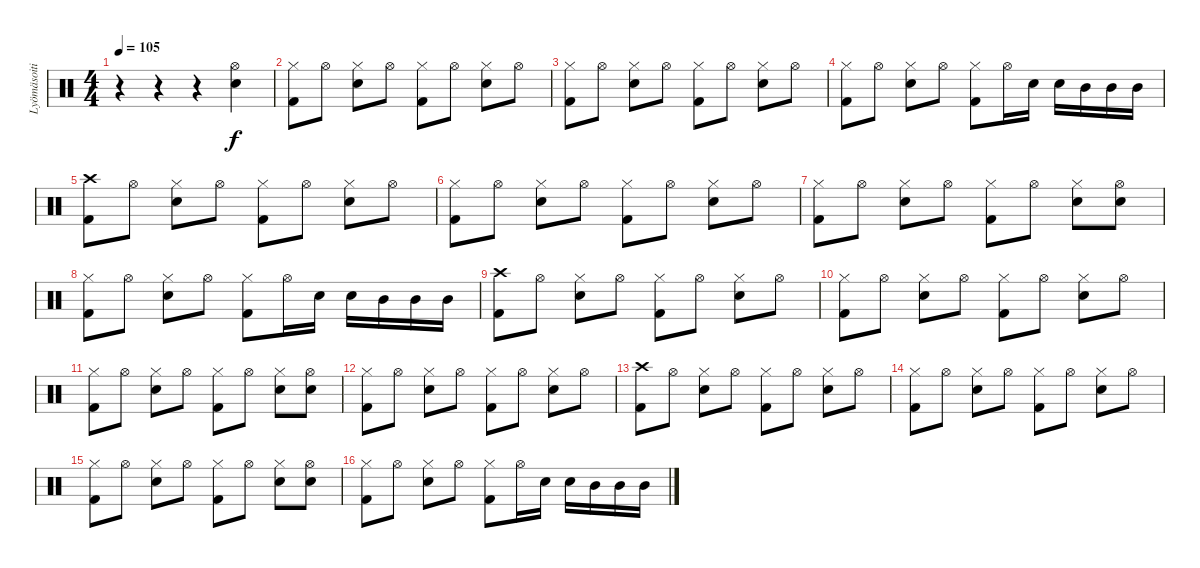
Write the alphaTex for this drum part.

\track ("Lyömäsoitin" "Lyömäsoiti") {instrument percussion}
\staff {score}
\articulation defaults
\ts (4 4)
\tempo 105
\clef neutral
\ks c
r.4{dy f} r.4 r.4 ("Hi-Hat (open)" "Snare (hit) 2").4 |
("Hi-Hat (closed)" "Kick (hit) 2").8 "Hi-Hat (open)".8 ("Hi-Hat (closed)" "Snare (hit) 2").8 "Hi-Hat (open)".8 ("Hi-Hat (closed)" "Kick (hit) 2").8 "Hi-Hat (open)".8 ("Hi-Hat (closed)" "Snare (hit) 2").8 "Hi-Hat (open)".8 |
("Hi-Hat (closed)" "Kick (hit) 2").8 "Hi-Hat (open)".8 ("Hi-Hat (closed)" "Snare (hit) 2").8 "Hi-Hat (open)".8 ("Hi-Hat (closed)" "Kick (hit) 2").8 "Hi-Hat (open)".8 ("Hi-Hat (closed)" "Snare (hit) 2").8 "Hi-Hat (open)".8 |
("Hi-Hat (closed)" "Kick (hit) 2").8 "Hi-Hat (open)".8 ("Hi-Hat (closed)" "Snare (hit) 2").8 "Hi-Hat (open)".8 ("Hi-Hat (closed)" "Kick (hit) 2").8 "Hi-Hat (open)".16 "Snare (hit) 2".16 "Snare (hit) 2".16 "Mid Tom (hit)".16 "Mid Tom (hit)".16 "Mid Tom (hit)".16 |
("Crash high (hit)" "Kick (hit) 2").8 "Hi-Hat (open)".8 ("Hi-Hat (closed)" "Snare (hit) 2").8 "Hi-Hat (open)".8 ("Hi-Hat (closed)" "Kick (hit) 2").8 "Hi-Hat (open)".8 ("Hi-Hat (closed)" "Snare (hit) 2").8 "Hi-Hat (open)".8 |
("Hi-Hat (closed)" "Kick (hit) 2").8 "Hi-Hat (open)".8 ("Hi-Hat (closed)" "Snare (hit) 2").8 "Hi-Hat (open)".8 ("Hi-Hat (closed)" "Kick (hit) 2").8 "Hi-Hat (open)".8 ("Hi-Hat (closed)" "Snare (hit) 2").8 "Hi-Hat (open)".8 |
("Hi-Hat (closed)" "Kick (hit) 2").8 "Hi-Hat (open)".8 ("Hi-Hat (closed)" "Snare (hit) 2").8 "Hi-Hat (open)".8 ("Hi-Hat (closed)" "Kick (hit) 2").8 "Hi-Hat (open)".8 ("Hi-Hat (closed)" "Snare (hit) 2").8 ("Hi-Hat (open)" "Snare (hit) 2").8 |
("Hi-Hat (closed)" "Kick (hit) 2").8 "Hi-Hat (open)".8 ("Hi-Hat (closed)" "Snare (hit) 2").8 "Hi-Hat (open)".8 ("Hi-Hat (closed)" "Kick (hit) 2").8 "Hi-Hat (open)".16 "Snare (hit) 2".16 "Snare (hit) 2".16 "Mid Tom (hit)".16 "Mid Tom (hit)".16 "Mid Tom (hit)".16 |
("Crash high (hit)" "Kick (hit) 2").8 "Hi-Hat (open)".8 ("Hi-Hat (closed)" "Snare (hit) 2").8 "Hi-Hat (open)".8 ("Hi-Hat (closed)" "Kick (hit) 2").8 "Hi-Hat (open)".8 ("Hi-Hat (closed)" "Snare (hit) 2").8 "Hi-Hat (open)".8 |
("Hi-Hat (closed)" "Kick (hit) 2").8 "Hi-Hat (open)".8 ("Hi-Hat (closed)" "Snare (hit) 2").8 "Hi-Hat (open)".8 ("Hi-Hat (closed)" "Kick (hit) 2").8 "Hi-Hat (open)".8 ("Hi-Hat (closed)" "Snare (hit) 2").8 "Hi-Hat (open)".8 |
("Hi-Hat (closed)" "Kick (hit) 2").8 "Hi-Hat (open)".8 ("Hi-Hat (closed)" "Snare (hit) 2").8 "Hi-Hat (open)".8 ("Hi-Hat (closed)" "Kick (hit) 2").8 "Hi-Hat (open)".8 ("Hi-Hat (closed)" "Snare (hit) 2").8 ("Hi-Hat (open)" "Snare (hit) 2").8 |
("Hi-Hat (closed)" "Kick (hit) 2").8 "Hi-Hat (open)".8 ("Hi-Hat (closed)" "Snare (hit) 2").8 "Hi-Hat (open)".8 ("Hi-Hat (closed)" "Kick (hit) 2").8 "Hi-Hat (open)".8 ("Hi-Hat (closed)" "Snare (hit) 2").8 "Hi-Hat (open)".8 |
("Crash high (hit)" "Kick (hit) 2").8 "Hi-Hat (open)".8 ("Hi-Hat (closed)" "Snare (hit) 2").8 "Hi-Hat (open)".8 ("Hi-Hat (closed)" "Kick (hit) 2").8 "Hi-Hat (open)".8 ("Hi-Hat (closed)" "Snare (hit) 2").8 "Hi-Hat (open)".8 |
("Hi-Hat (closed)" "Kick (hit) 2").8 "Hi-Hat (open)".8 ("Hi-Hat (closed)" "Snare (hit) 2").8 "Hi-Hat (open)".8 ("Hi-Hat (closed)" "Kick (hit) 2").8 "Hi-Hat (open)".8 ("Hi-Hat (closed)" "Snare (hit) 2").8 "Hi-Hat (open)".8 |
("Hi-Hat (closed)" "Kick (hit) 2").8 "Hi-Hat (open)".8 ("Hi-Hat (closed)" "Snare (hit) 2").8 "Hi-Hat (open)".8 ("Hi-Hat (closed)" "Kick (hit) 2").8 "Hi-Hat (open)".8 ("Hi-Hat (closed)" "Snare (hit) 2").8 ("Hi-Hat (open)" "Snare (hit) 2").8 |
("Hi-Hat (closed)" "Kick (hit) 2").8 "Hi-Hat (open)".8 ("Hi-Hat (closed)" "Snare (hit) 2").8 "Hi-Hat (open)".8 ("Hi-Hat (closed)" "Kick (hit) 2").8 "Hi-Hat (open)".16 "Snare (hit) 2".16 "Snare (hit) 2".16 "Mid Tom (hit)".16 "Mid Tom (hit)".16 "Mid Tom (hit)".16
